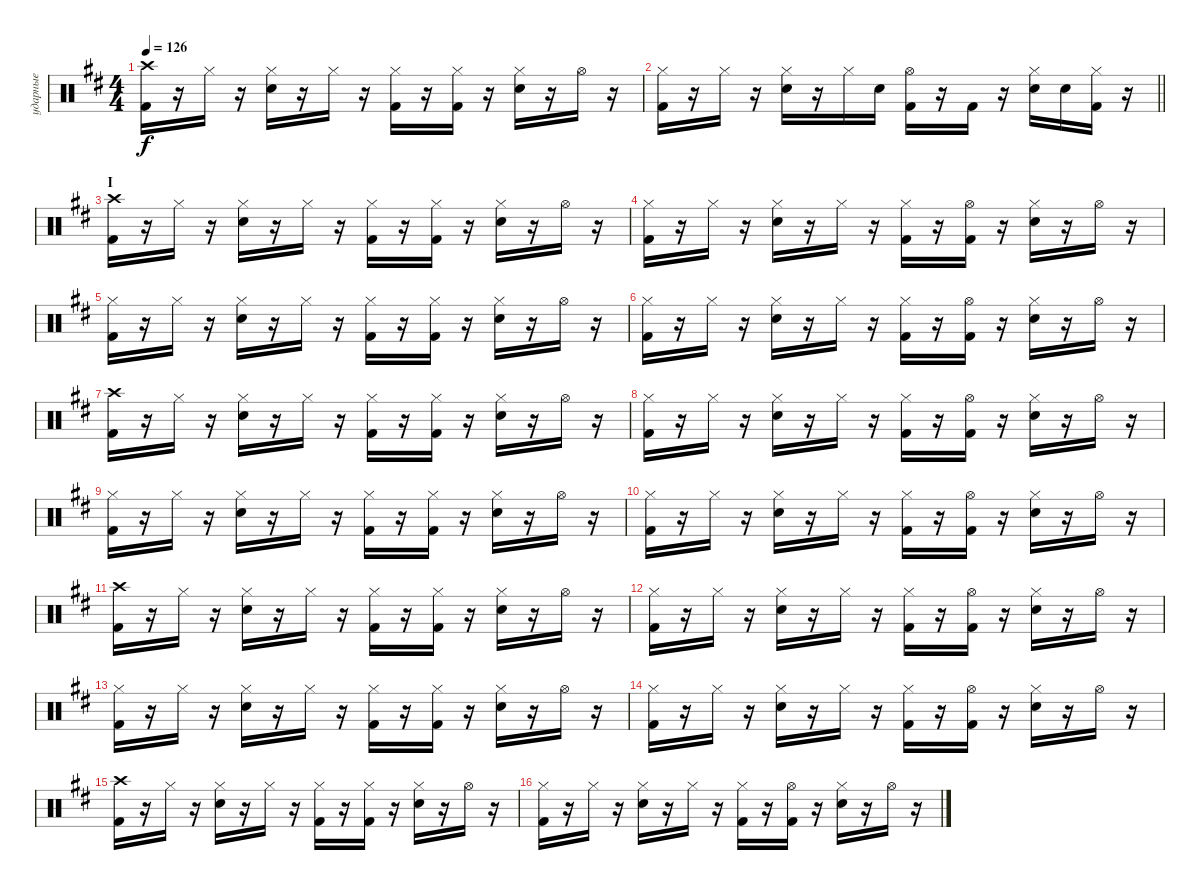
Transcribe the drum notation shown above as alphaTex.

\track ("ударные" "ударные") {instrument percussion}
\staff {score}
\articulation defaults
\ts (4 4)
\tempo 126
\clef neutral
\ks d
("Crash high (hit)" "Kick (hit) 2").16{dy f} r.16 "Hi-Hat (closed)".16 r.16 ("Hi-Hat (closed)" "Electric Snare (hit)").16 r.16 "Hi-Hat (closed)".16 r.16 ("Hi-Hat (closed)" "Kick (hit) 2").16 r.16 ("Hi-Hat (closed)" "Kick (hit) 2").16 r.16 ("Hi-Hat (closed)" "Electric Snare (hit)").16 r.16 "Hi-Hat (open)".16 r.16 |
\barLineRight lightlight
("Hi-Hat (closed)" "Kick (hit) 2").16 r.16 "Hi-Hat (closed)".16 r.16 ("Hi-Hat (closed)" "Electric Snare (hit)").16 r.16 "Hi-Hat (closed)".16 "Electric Snare (hit)".16 ("Hi-Hat (open)" "Kick (hit) 2").16 r.16 "Kick (hit) 2".16 r.16 ("Hi-Hat (closed)" "Electric Snare (hit)").16 "Electric Snare (hit)".16 ("Hi-Hat (closed)" "Kick (hit) 2").16 r.16 |
\section ("" "I")
("Crash high (hit)" "Kick (hit) 2").16 r.16 "Hi-Hat (closed)".16 r.16 ("Hi-Hat (closed)" "Electric Snare (hit)").16 r.16 "Hi-Hat (closed)".16 r.16 ("Hi-Hat (closed)" "Kick (hit) 2").16 r.16 ("Hi-Hat (closed)" "Kick (hit) 2").16 r.16 ("Hi-Hat (closed)" "Electric Snare (hit)").16 r.16 "Hi-Hat (open)".16 r.16 |
("Hi-Hat (closed)" "Kick (hit) 2").16 r.16 "Hi-Hat (closed)".16 r.16 ("Hi-Hat (closed)" "Electric Snare (hit)").16 r.16 "Hi-Hat (closed)".16 r.16 ("Hi-Hat (closed)" "Kick (hit) 2").16 r.16 ("Hi-Hat (open)" "Kick (hit) 2").16 r.16 ("Hi-Hat (closed)" "Electric Snare (hit)").16 r.16 "Hi-Hat (open)".16 r.16 |
("Hi-Hat (closed)" "Kick (hit) 2").16 r.16 "Hi-Hat (closed)".16 r.16 ("Hi-Hat (closed)" "Electric Snare (hit)").16 r.16 "Hi-Hat (closed)".16 r.16 ("Hi-Hat (closed)" "Kick (hit) 2").16 r.16 ("Hi-Hat (closed)" "Kick (hit) 2").16 r.16 ("Hi-Hat (closed)" "Electric Snare (hit)").16 r.16 "Hi-Hat (open)".16 r.16 |
("Hi-Hat (closed)" "Kick (hit) 2").16 r.16 "Hi-Hat (closed)".16 r.16 ("Hi-Hat (closed)" "Electric Snare (hit)").16 r.16 "Hi-Hat (closed)".16 r.16 ("Hi-Hat (closed)" "Kick (hit) 2").16 r.16 ("Hi-Hat (open)" "Kick (hit) 2").16 r.16 ("Hi-Hat (closed)" "Electric Snare (hit)").16 r.16 "Hi-Hat (open)".16 r.16 |
("Crash high (hit)" "Kick (hit) 2").16 r.16 "Hi-Hat (closed)".16 r.16 ("Hi-Hat (closed)" "Electric Snare (hit)").16 r.16 "Hi-Hat (closed)".16 r.16 ("Hi-Hat (closed)" "Kick (hit) 2").16 r.16 ("Hi-Hat (closed)" "Kick (hit) 2").16 r.16 ("Hi-Hat (closed)" "Electric Snare (hit)").16 r.16 "Hi-Hat (open)".16 r.16 |
("Hi-Hat (closed)" "Kick (hit) 2").16 r.16 "Hi-Hat (closed)".16 r.16 ("Hi-Hat (closed)" "Electric Snare (hit)").16 r.16 "Hi-Hat (closed)".16 r.16 ("Hi-Hat (closed)" "Kick (hit) 2").16 r.16 ("Hi-Hat (open)" "Kick (hit) 2").16 r.16 ("Hi-Hat (closed)" "Electric Snare (hit)").16 r.16 "Hi-Hat (open)".16 r.16 |
("Hi-Hat (closed)" "Kick (hit) 2").16 r.16 "Hi-Hat (closed)".16 r.16 ("Hi-Hat (closed)" "Electric Snare (hit)").16 r.16 "Hi-Hat (closed)".16 r.16 ("Hi-Hat (closed)" "Kick (hit) 2").16 r.16 ("Hi-Hat (closed)" "Kick (hit) 2").16 r.16 ("Hi-Hat (closed)" "Electric Snare (hit)").16 r.16 "Hi-Hat (open)".16 r.16 |
("Hi-Hat (closed)" "Kick (hit) 2").16 r.16 "Hi-Hat (closed)".16 r.16 ("Hi-Hat (closed)" "Electric Snare (hit)").16 r.16 "Hi-Hat (closed)".16 r.16 ("Hi-Hat (closed)" "Kick (hit) 2").16 r.16 ("Hi-Hat (open)" "Kick (hit) 2").16 r.16 ("Hi-Hat (closed)" "Electric Snare (hit)").16 r.16 "Hi-Hat (open)".16 r.16 |
("Crash high (hit)" "Kick (hit) 2").16 r.16 "Hi-Hat (closed)".16 r.16 ("Hi-Hat (closed)" "Electric Snare (hit)").16 r.16 "Hi-Hat (closed)".16 r.16 ("Hi-Hat (closed)" "Kick (hit) 2").16 r.16 ("Hi-Hat (closed)" "Kick (hit) 2").16 r.16 ("Hi-Hat (closed)" "Electric Snare (hit)").16 r.16 "Hi-Hat (open)".16 r.16 |
("Hi-Hat (closed)" "Kick (hit) 2").16 r.16 "Hi-Hat (closed)".16 r.16 ("Hi-Hat (closed)" "Electric Snare (hit)").16 r.16 "Hi-Hat (closed)".16 r.16 ("Hi-Hat (closed)" "Kick (hit) 2").16 r.16 ("Hi-Hat (open)" "Kick (hit) 2").16 r.16 ("Hi-Hat (closed)" "Electric Snare (hit)").16 r.16 "Hi-Hat (open)".16 r.16 |
("Hi-Hat (closed)" "Kick (hit) 2").16 r.16 "Hi-Hat (closed)".16 r.16 ("Hi-Hat (closed)" "Electric Snare (hit)").16 r.16 "Hi-Hat (closed)".16 r.16 ("Hi-Hat (closed)" "Kick (hit) 2").16 r.16 ("Hi-Hat (closed)" "Kick (hit) 2").16 r.16 ("Hi-Hat (closed)" "Electric Snare (hit)").16 r.16 "Hi-Hat (open)".16 r.16 |
("Hi-Hat (closed)" "Kick (hit) 2").16 r.16 "Hi-Hat (closed)".16 r.16 ("Hi-Hat (closed)" "Electric Snare (hit)").16 r.16 "Hi-Hat (closed)".16 r.16 ("Hi-Hat (closed)" "Kick (hit) 2").16 r.16 ("Hi-Hat (open)" "Kick (hit) 2").16 r.16 ("Hi-Hat (closed)" "Electric Snare (hit)").16 r.16 "Hi-Hat (open)".16 r.16 |
("Crash high (hit)" "Kick (hit) 2").16 r.16 "Hi-Hat (closed)".16 r.16 ("Hi-Hat (closed)" "Electric Snare (hit)").16 r.16 "Hi-Hat (closed)".16 r.16 ("Hi-Hat (closed)" "Kick (hit) 2").16 r.16 ("Hi-Hat (closed)" "Kick (hit) 2").16 r.16 ("Hi-Hat (closed)" "Electric Snare (hit)").16 r.16 "Hi-Hat (open)".16 r.16 |
("Hi-Hat (closed)" "Kick (hit) 2").16 r.16 "Hi-Hat (closed)".16 r.16 ("Hi-Hat (closed)" "Electric Snare (hit)").16 r.16 "Hi-Hat (closed)".16 r.16 ("Hi-Hat (closed)" "Kick (hit) 2").16 r.16 ("Hi-Hat (open)" "Kick (hit) 2").16 r.16 ("Hi-Hat (closed)" "Electric Snare (hit)").16 r.16 "Hi-Hat (open)".16 r.16
